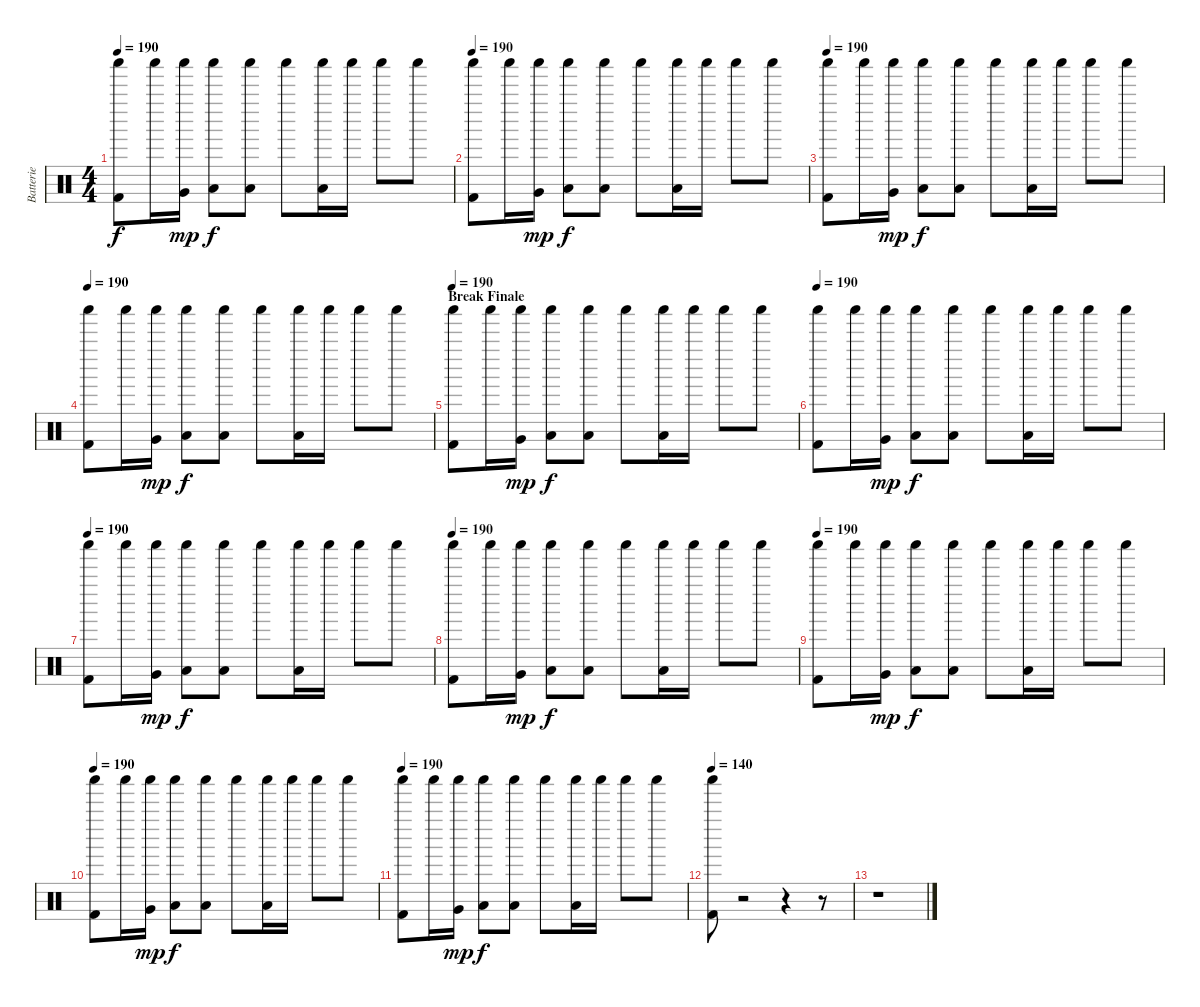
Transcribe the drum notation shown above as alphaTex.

\track ("Batterie" "Batterie") {instrument percussion}
\staff {score}
\articulation defaults
\ts (4 4)
\tempo 190
\clef neutral
\ks c
("Shaker (hit)" "Kick (hit) 2").8{dy f} "Shaker (hit)".16 ("Shaker (hit)" "Very Low Tom (hit)").16{dy mp} ("Shaker (hit)" "Low Tom (hit)").8{dy f} ("Shaker (hit)" "Low Tom (hit)").8 "Shaker (hit)".8 ("Shaker (hit)" "Low Tom (hit)").16 "Shaker (hit)".16 "Shaker (hit)".8 "Shaker (hit)".8 |
\tempo 190
("Shaker (hit)" "Kick (hit) 2").8 "Shaker (hit)".16 ("Shaker (hit)" "Very Low Tom (hit)").16{dy mp} ("Shaker (hit)" "Low Tom (hit)").8{dy f} ("Shaker (hit)" "Low Tom (hit)").8 "Shaker (hit)".8 ("Shaker (hit)" "Low Tom (hit)").16 "Shaker (hit)".16 "Shaker (hit)".8 "Shaker (hit)".8 |
\tempo 190
("Shaker (hit)" "Kick (hit) 2").8 "Shaker (hit)".16 ("Shaker (hit)" "Very Low Tom (hit)").16{dy mp} ("Shaker (hit)" "Low Tom (hit)").8{dy f} ("Shaker (hit)" "Low Tom (hit)").8 "Shaker (hit)".8 ("Shaker (hit)" "Low Tom (hit)").16 "Shaker (hit)".16 "Shaker (hit)".8 "Shaker (hit)".8 |
\tempo 190
("Shaker (hit)" "Kick (hit) 2").8 "Shaker (hit)".16 ("Shaker (hit)" "Very Low Tom (hit)").16{dy mp} ("Shaker (hit)" "Low Tom (hit)").8{dy f} ("Shaker (hit)" "Low Tom (hit)").8 "Shaker (hit)".8 ("Shaker (hit)" "Low Tom (hit)").16 "Shaker (hit)".16 "Shaker (hit)".8 "Shaker (hit)".8 |
\section ("" "Break Finale")
\tempo 190
("Shaker (hit)" "Kick (hit) 2").8 "Shaker (hit)".16 ("Shaker (hit)" "Very Low Tom (hit)").16{dy mp} ("Shaker (hit)" "Low Tom (hit)").8{dy f} ("Shaker (hit)" "Low Tom (hit)").8 "Shaker (hit)".8 ("Shaker (hit)" "Low Tom (hit)").16 "Shaker (hit)".16 "Shaker (hit)".8 "Shaker (hit)".8 |
\tempo 190
("Shaker (hit)" "Kick (hit) 2").8 "Shaker (hit)".16 ("Shaker (hit)" "Very Low Tom (hit)").16{dy mp} ("Shaker (hit)" "Low Tom (hit)").8{dy f} ("Shaker (hit)" "Low Tom (hit)").8 "Shaker (hit)".8 ("Shaker (hit)" "Low Tom (hit)").16 "Shaker (hit)".16 "Shaker (hit)".8 "Shaker (hit)".8 |
\tempo 190
("Shaker (hit)" "Kick (hit) 2").8 "Shaker (hit)".16 ("Shaker (hit)" "Very Low Tom (hit)").16{dy mp} ("Shaker (hit)" "Low Tom (hit)").8{dy f} ("Shaker (hit)" "Low Tom (hit)").8 "Shaker (hit)".8 ("Shaker (hit)" "Low Tom (hit)").16 "Shaker (hit)".16 "Shaker (hit)".8 "Shaker (hit)".8 |
\tempo 190
("Shaker (hit)" "Kick (hit) 2").8 "Shaker (hit)".16 ("Shaker (hit)" "Very Low Tom (hit)").16{dy mp} ("Shaker (hit)" "Low Tom (hit)").8{dy f} ("Shaker (hit)" "Low Tom (hit)").8 "Shaker (hit)".8 ("Shaker (hit)" "Low Tom (hit)").16 "Shaker (hit)".16 "Shaker (hit)".8 "Shaker (hit)".8 |
\tempo 190
("Shaker (hit)" "Kick (hit) 2").8 "Shaker (hit)".16 ("Shaker (hit)" "Very Low Tom (hit)").16{dy mp} ("Shaker (hit)" "Low Tom (hit)").8{dy f} ("Shaker (hit)" "Low Tom (hit)").8 "Shaker (hit)".8 ("Shaker (hit)" "Low Tom (hit)").16 "Shaker (hit)".16 "Shaker (hit)".8 "Shaker (hit)".8 |
\tempo 190
("Shaker (hit)" "Kick (hit) 2").8 "Shaker (hit)".16 ("Shaker (hit)" "Very Low Tom (hit)").16{dy mp} ("Shaker (hit)" "Low Tom (hit)").8{dy f} ("Shaker (hit)" "Low Tom (hit)").8 "Shaker (hit)".8 ("Shaker (hit)" "Low Tom (hit)").16 "Shaker (hit)".16 "Shaker (hit)".8 "Shaker (hit)".8 |
\tempo 190
("Shaker (hit)" "Kick (hit) 2").8 "Shaker (hit)".16 ("Shaker (hit)" "Very Low Tom (hit)").16{dy mp} ("Shaker (hit)" "Low Tom (hit)").8{dy f} ("Shaker (hit)" "Low Tom (hit)").8 "Shaker (hit)".8 ("Shaker (hit)" "Low Tom (hit)").16 "Shaker (hit)".16 "Shaker (hit)".8 "Shaker (hit)".8 |
\tempo 140
("Shaker (hit)" "Kick (hit) 2").8 r.2 r.4 r.8 |
r.1
